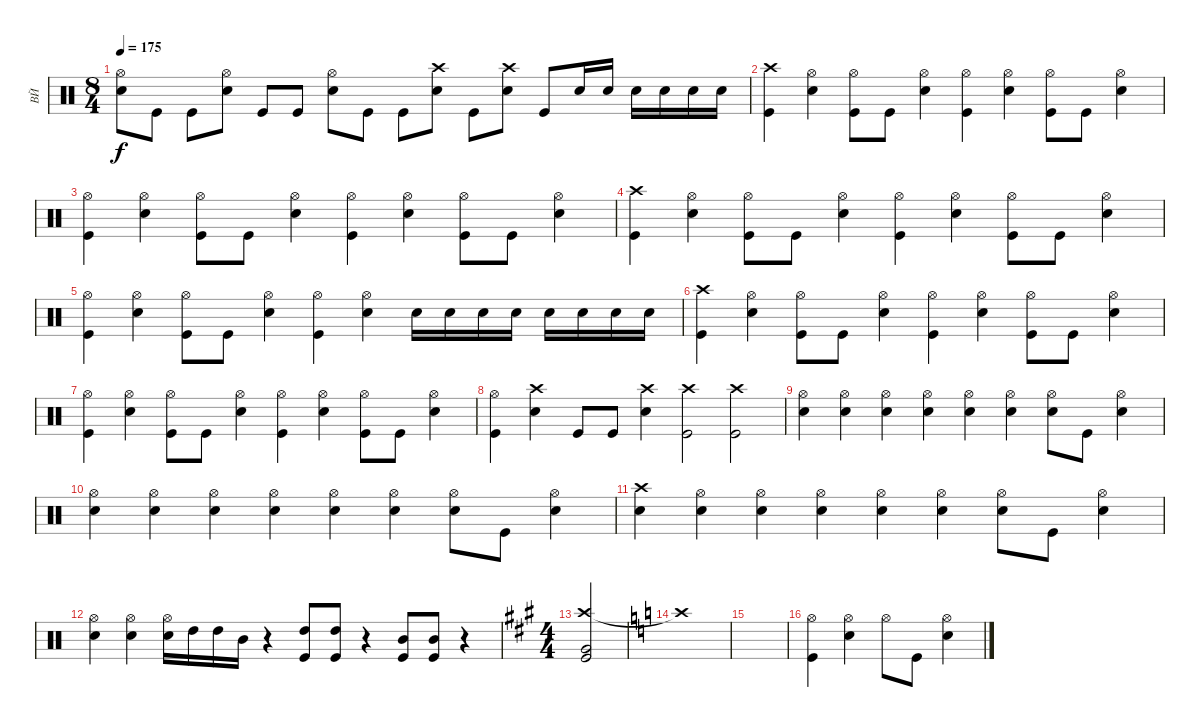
\track ("ВЙ" "ВЙ") {instrument percussion}
\staff {score}
\articulation defaults
\ts (8 4)
\tempo 175
\clef neutral
\ks c
("Hi-Hat (open)" "Electric Snare (hit)").8{dy f} "Kick (hit)".8 "Kick (hit)".8 ("Hi-Hat (open)" "Electric Snare (hit)").8 "Kick (hit)".8 "Kick (hit)".8 ("Hi-Hat (open)" "Electric Snare (hit)").8 "Kick (hit)".8 "Kick (hit)".8 ("Crash high (hit)" "Electric Snare (hit)").8 "Kick (hit)".8 ("Crash high (hit)" "Electric Snare (hit)").8 "Kick (hit)".8 "Electric Snare (hit)".16 "Electric Snare (hit)".16 "Electric Snare (hit)".16 "Electric Snare (hit)".16 "Electric Snare (hit)".16 "Electric Snare (hit)".16 |
("Crash high (hit)" "Kick (hit)").4 ("Hi-Hat (open)" "Electric Snare (hit)").4 ("Hi-Hat (open)" "Kick (hit)").8 "Kick (hit)".8 ("Hi-Hat (open)" "Electric Snare (hit)").4 ("Hi-Hat (open)" "Kick (hit)").4 ("Hi-Hat (open)" "Electric Snare (hit)").4 ("Hi-Hat (open)" "Kick (hit)").8 "Kick (hit)".8 ("Hi-Hat (open)" "Electric Snare (hit)").4 |
("Hi-Hat (open)" "Kick (hit)").4 ("Hi-Hat (open)" "Electric Snare (hit)").4 ("Hi-Hat (open)" "Kick (hit)").8 "Kick (hit)".8 ("Hi-Hat (open)" "Electric Snare (hit)").4 ("Hi-Hat (open)" "Kick (hit)").4 ("Hi-Hat (open)" "Electric Snare (hit)").4 ("Hi-Hat (open)" "Kick (hit)").8 "Kick (hit)".8 ("Hi-Hat (open)" "Electric Snare (hit)").4 |
("Crash high (hit)" "Kick (hit)").4 ("Hi-Hat (open)" "Electric Snare (hit)").4 ("Hi-Hat (open)" "Kick (hit)").8 "Kick (hit)".8 ("Hi-Hat (open)" "Electric Snare (hit)").4 ("Hi-Hat (open)" "Kick (hit)").4 ("Hi-Hat (open)" "Electric Snare (hit)").4 ("Hi-Hat (open)" "Kick (hit)").8 "Kick (hit)".8 ("Hi-Hat (open)" "Electric Snare (hit)").4 |
("Hi-Hat (open)" "Kick (hit)").4 ("Hi-Hat (open)" "Electric Snare (hit)").4 ("Hi-Hat (open)" "Kick (hit)").8 "Kick (hit)".8 ("Hi-Hat (open)" "Electric Snare (hit)").4 ("Hi-Hat (open)" "Kick (hit)").4 ("Hi-Hat (open)" "Electric Snare (hit)").4 "Electric Snare (hit)".16 "Electric Snare (hit)".16 "Electric Snare (hit)".16 "Electric Snare (hit)".16 "Electric Snare (hit)".16 "Electric Snare (hit)".16 "Electric Snare (hit)".16 "Electric Snare (hit)".16 |
("Crash high (hit)" "Kick (hit)").4 ("Hi-Hat (open)" "Electric Snare (hit)").4 ("Hi-Hat (open)" "Kick (hit)").8 "Kick (hit)".8 ("Hi-Hat (open)" "Electric Snare (hit)").4 ("Hi-Hat (open)" "Kick (hit)").4 ("Hi-Hat (open)" "Electric Snare (hit)").4 ("Hi-Hat (open)" "Kick (hit)").8 "Kick (hit)".8 ("Hi-Hat (open)" "Electric Snare (hit)").4 |
("Hi-Hat (open)" "Kick (hit)").4 ("Hi-Hat (open)" "Electric Snare (hit)").4 ("Hi-Hat (open)" "Kick (hit)").8 "Kick (hit)".8 ("Hi-Hat (open)" "Electric Snare (hit)").4 ("Hi-Hat (open)" "Kick (hit)").4 ("Hi-Hat (open)" "Electric Snare (hit)").4 ("Hi-Hat (open)" "Kick (hit)").8 "Kick (hit)".8 ("Hi-Hat (open)" "Electric Snare (hit)").4 |
("Hi-Hat (open)" "Kick (hit)").4 ("Crash high (hit)" "Electric Snare (hit)").4 "Kick (hit)".8 "Kick (hit)".8 ("Crash high (hit)" "Electric Snare (hit)").4 ("Crash high (hit)" "Kick (hit)").2 ("Crash high (hit)" "Kick (hit)").2 |
("Hi-Hat (open)" "Electric Snare (hit)").4 ("Hi-Hat (open)" "Electric Snare (hit)").4 ("Hi-Hat (open)" "Electric Snare (hit)").4 ("Hi-Hat (open)" "Electric Snare (hit)").4 ("Hi-Hat (open)" "Electric Snare (hit)").4 ("Hi-Hat (open)" "Electric Snare (hit)").4 ("Hi-Hat (open)" "Electric Snare (hit)").8 "Kick (hit)".8 ("Hi-Hat (open)" "Electric Snare (hit)").4 |
("Hi-Hat (open)" "Electric Snare (hit)").4 ("Hi-Hat (open)" "Electric Snare (hit)").4 ("Hi-Hat (open)" "Electric Snare (hit)").4 ("Hi-Hat (open)" "Electric Snare (hit)").4 ("Hi-Hat (open)" "Electric Snare (hit)").4 ("Hi-Hat (open)" "Electric Snare (hit)").4 ("Hi-Hat (open)" "Electric Snare (hit)").8 "Kick (hit)".8 ("Hi-Hat (open)" "Electric Snare (hit)").4 |
("Crash high (hit)" "Electric Snare (hit)").4 ("Hi-Hat (open)" "Electric Snare (hit)").4 ("Hi-Hat (open)" "Electric Snare (hit)").4 ("Hi-Hat (open)" "Electric Snare (hit)").4 ("Hi-Hat (open)" "Electric Snare (hit)").4 ("Hi-Hat (open)" "Electric Snare (hit)").4 ("Hi-Hat (open)" "Electric Snare (hit)").8 "Kick (hit)".8 ("Hi-Hat (open)" "Electric Snare (hit)").4 |
("Hi-Hat (open)" "Electric Snare (hit)").4 ("Hi-Hat (open)" "Electric Snare (hit)").4 ("Hi-Hat (open)" "Electric Snare (hit)").16 "High Tom (hit)".16 "High Tom (hit)".16 "Mid Tom (hit)".16 r.4 ("High Tom (hit)" "Kick (hit)").8 ("High Tom (hit)" "Kick (hit)").8 r.4 ("Mid Tom (hit)" "Kick (hit)").8 ("Mid Tom (hit)" "Kick (hit)").8 r.4 |
\ts (4 4)
\ks a
("Crash high (hit)" "Very Low Tom (hit)" "Kick (hit)").2 |
\ks c "Crash high (hit)"{t}.1
|
|
("Hi-Hat (open)" "Kick (hit)").4 ("Hi-Hat (open)" "Electric Snare (hit)").4 "Hi-Hat (open)".8 "Kick (hit)".8 ("Hi-Hat (open)" "Electric Snare (hit)").4
